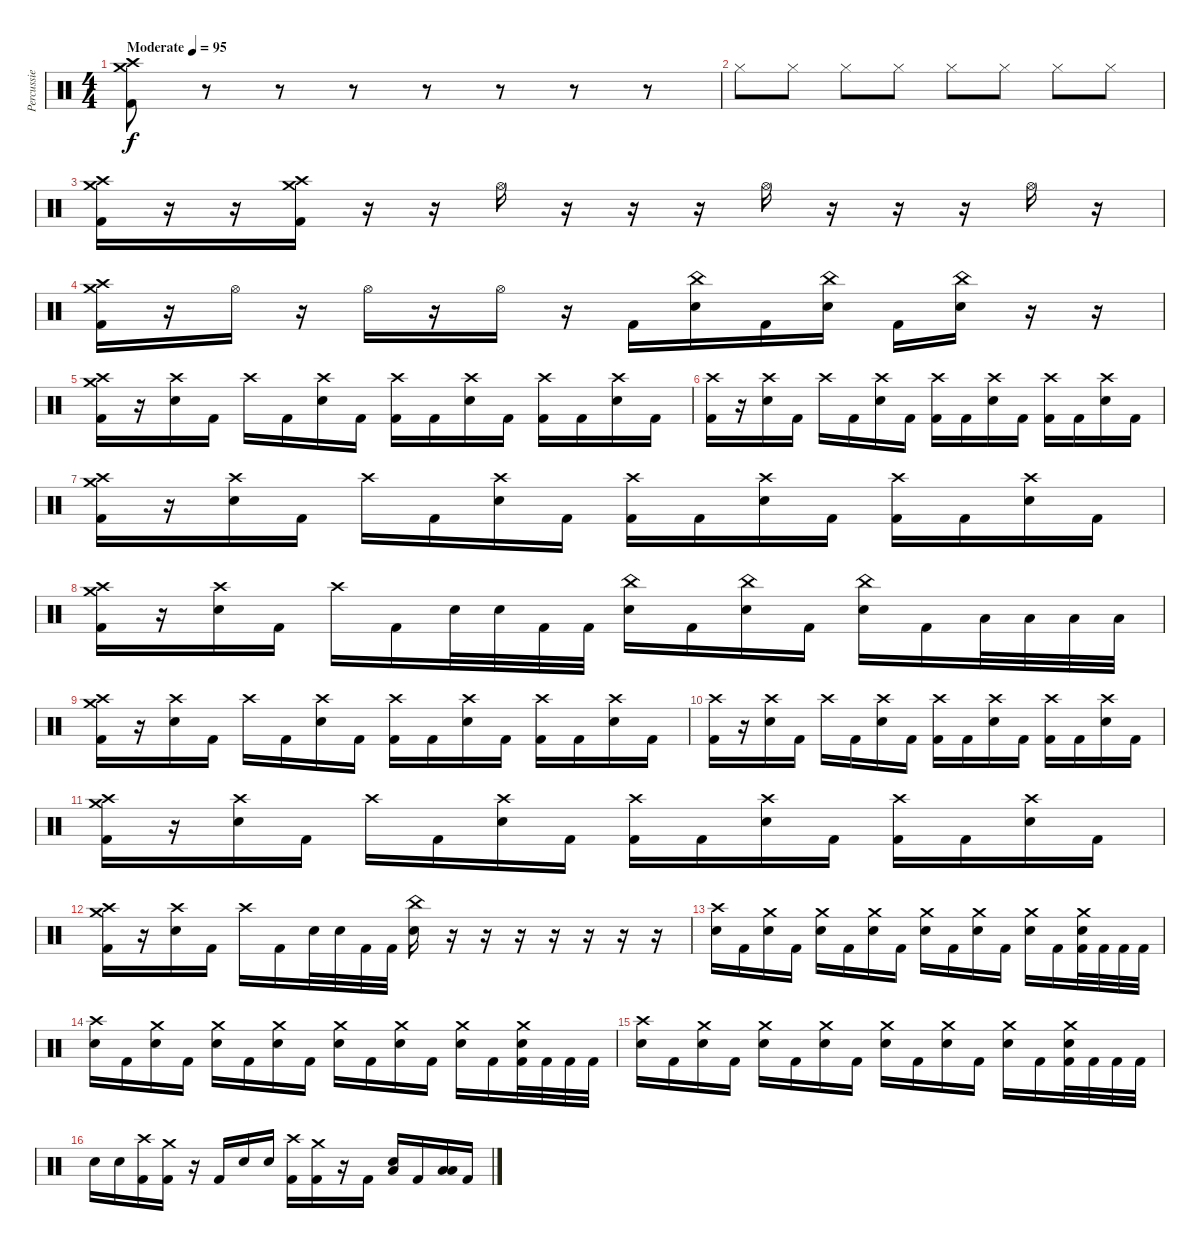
\track ("Percussie" "Percussie") {instrument percussion}
\staff {score}
\articulation defaults
\ts (4 4)
\tempo (95 "Moderate")
\clef neutral
\ks c
("Crash medium (hit)" "Crash high (hit)" "Kick (hit) 2").8{dy f} r.8{volume 0} r.8 r.8 r.8 r.8 r.8 r.8 |
"Hi-Hat (closed)".8{volume 13} "Hi-Hat (closed)".8 "Hi-Hat (closed)".8 "Hi-Hat (closed)".8 "Hi-Hat (closed)".8 "Hi-Hat (closed)".8 "Hi-Hat (closed)".8 "Hi-Hat (closed)".8 |
("Crash medium (hit)" "Crash high (hit)" "Kick (hit) 2").16{volume 13} r.16{volume 0} r.16 ("Crash medium (hit)" "Crash high (hit)" "Kick (hit) 2").16{volume 13} r.16 r.16 "Hi-Hat (open)".16 r.16 r.16 r.16 "Hi-Hat (open)".16 r.16 r.16 r.16 "Hi-Hat (open)".16 r.16 |
("Crash medium (hit)" "Crash high (hit)" "Kick (hit) 2").16 r.16 "Hi-Hat (open)".16 r.16 "Hi-Hat (open)".16 r.16 "Hi-Hat (open)".16 r.16 "Kick (hit) 2".16 ("China (hit)" "Electric Snare (hit)").16 "Kick (hit) 2".16 ("China (hit)" "Electric Snare (hit)").16 "Kick (hit) 2".16 ("China (hit)" "Electric Snare (hit)").16 r.16{volume 0} r.16 |
("Crash medium (hit)" "Crash high (hit)" "Kick (hit) 2").16{volume 13} r.16 ("Crash high (hit)" "Electric Snare (hit)").16 "Kick (hit) 2".16 "Crash high (hit)".16 "Kick (hit) 2".16 ("Crash high (hit)" "Electric Snare (hit)").16 "Kick (hit) 2".16 ("Crash high (hit)" "Kick (hit) 2").16 "Kick (hit) 2".16 ("Crash high (hit)" "Electric Snare (hit)").16 "Kick (hit) 2".16 ("Crash high (hit)" "Kick (hit) 2").16 "Kick (hit) 2".16 ("Crash high (hit)" "Electric Snare (hit)").16 "Kick (hit) 2".16 |
("Crash high (hit)" "Kick (hit) 2").16 r.16 ("Crash high (hit)" "Electric Snare (hit)").16 "Kick (hit) 2".16 "Crash high (hit)".16 "Kick (hit) 2".16 ("Crash high (hit)" "Electric Snare (hit)").16 "Kick (hit) 2".16 ("Crash high (hit)" "Kick (hit) 2").16 "Kick (hit) 2".16 ("Crash high (hit)" "Electric Snare (hit)").16 "Kick (hit) 2".16 ("Crash high (hit)" "Kick (hit) 2").16 "Kick (hit) 2".16 ("Crash high (hit)" "Electric Snare (hit)").16 "Kick (hit) 2".16 |
("Crash medium (hit)" "Crash high (hit)" "Kick (hit) 2").16 r.16 ("Crash high (hit)" "Electric Snare (hit)").16 "Kick (hit) 2".16 "Crash high (hit)".16 "Kick (hit) 2".16 ("Crash high (hit)" "Electric Snare (hit)").16 "Kick (hit) 2".16 ("Crash high (hit)" "Kick (hit) 2").16 "Kick (hit) 2".16 ("Crash high (hit)" "Electric Snare (hit)").16 "Kick (hit) 2".16 ("Crash high (hit)" "Kick (hit) 2").16 "Kick (hit) 2".16 ("Crash high (hit)" "Electric Snare (hit)").16 "Kick (hit) 2".16 |
("Crash medium (hit)" "Crash high (hit)" "Kick (hit) 2").16 r.16 ("Crash high (hit)" "Electric Snare (hit)").16 "Kick (hit) 2".16 "Crash high (hit)".16 "Kick (hit) 2".16 "Electric Snare (hit)".32 "Electric Snare (hit)".32 "Kick (hit) 2".32 "Kick (hit) 2".32 ("China (hit)" "Electric Snare (hit)").16 "Kick (hit) 2".16 ("China (hit)" "Electric Snare (hit)").16 "Kick (hit) 2".16 ("China (hit)" "Electric Snare (hit)").16 "Kick (hit) 2".16 "Low Tom (hit)".32 "Low Tom (hit)".32 "Low Floor Tom (hit)".32 "Low Floor Tom (hit)".32 |
("Crash medium (hit)" "Crash high (hit)" "Kick (hit) 2").16{volume 13} r.16 ("Crash high (hit)" "Electric Snare (hit)").16 "Kick (hit) 2".16 "Crash high (hit)".16 "Kick (hit) 2".16 ("Crash high (hit)" "Electric Snare (hit)").16 "Kick (hit) 2".16 ("Crash high (hit)" "Kick (hit) 2").16 "Kick (hit) 2".16 ("Crash high (hit)" "Electric Snare (hit)").16 "Kick (hit) 2".16 ("Crash high (hit)" "Kick (hit) 2").16 "Kick (hit) 2".16 ("Crash high (hit)" "Electric Snare (hit)").16 "Kick (hit) 2".16 |
("Crash high (hit)" "Kick (hit) 2").16 r.16 ("Crash high (hit)" "Electric Snare (hit)").16 "Kick (hit) 2".16 "Crash high (hit)".16 "Kick (hit) 2".16 ("Crash high (hit)" "Electric Snare (hit)").16 "Kick (hit) 2".16 ("Crash high (hit)" "Kick (hit) 2").16 "Kick (hit) 2".16 ("Crash high (hit)" "Electric Snare (hit)").16 "Kick (hit) 2".16 ("Crash high (hit)" "Kick (hit) 2").16 "Kick (hit) 2".16 ("Crash high (hit)" "Electric Snare (hit)").16 "Kick (hit) 2".16 |
("Crash medium (hit)" "Crash high (hit)" "Kick (hit) 2").16 r.16 ("Crash high (hit)" "Electric Snare (hit)").16 "Kick (hit) 2".16 "Crash high (hit)".16 "Kick (hit) 2".16 ("Crash high (hit)" "Electric Snare (hit)").16 "Kick (hit) 2".16 ("Crash high (hit)" "Kick (hit) 2").16 "Kick (hit) 2".16 ("Crash high (hit)" "Electric Snare (hit)").16 "Kick (hit) 2".16 ("Crash high (hit)" "Kick (hit) 2").16 "Kick (hit) 2".16 ("Crash high (hit)" "Electric Snare (hit)").16 "Kick (hit) 2".16 |
("Crash medium (hit)" "Crash high (hit)" "Kick (hit) 2").16 r.16 ("Crash high (hit)" "Electric Snare (hit)").16 "Kick (hit) 2".16 "Crash high (hit)".16 "Kick (hit) 2".16 "Electric Snare (hit)".32 "Electric Snare (hit)".32 "Kick (hit) 2".32 "Kick (hit) 2".32 ("China (hit)" "Electric Snare (hit)").16 r.16{volume 0} r.16 r.16 r.16 r.16 r.16 r.16 |
("Crash high (hit)" "Electric Snare (hit)").16{volume 13} "Kick (hit) 2".16 ("Crash medium (hit)" "Electric Snare (hit)").16 "Kick (hit) 2".16 ("Crash medium (hit)" "Electric Snare (hit)").16 "Kick (hit) 2".16 ("Crash medium (hit)" "Electric Snare (hit)").16 "Kick (hit) 2".16 ("Crash medium (hit)" "Electric Snare (hit)").16 "Kick (hit) 2".16 ("Crash medium (hit)" "Electric Snare (hit)").16 "Kick (hit) 2".16 ("Crash medium (hit)" "Electric Snare (hit)").16 "Kick (hit) 2".16 ("Crash medium (hit)" "Electric Snare (hit)" "Kick (hit) 2").32 "Kick (hit) 2".32 "Kick (hit) 2".32 "Kick (hit) 2".32 |
("Crash high (hit)" "Electric Snare (hit)").16{volume 13} "Kick (hit) 2".16 ("Crash medium (hit)" "Electric Snare (hit)").16 "Kick (hit) 2".16 ("Crash medium (hit)" "Electric Snare (hit)").16 "Kick (hit) 2".16 ("Crash medium (hit)" "Electric Snare (hit)").16 "Kick (hit) 2".16 ("Crash medium (hit)" "Electric Snare (hit)").16 "Kick (hit) 2".16 ("Crash medium (hit)" "Electric Snare (hit)").16 "Kick (hit) 2".16 ("Crash medium (hit)" "Electric Snare (hit)").16 "Kick (hit) 2".16 ("Crash medium (hit)" "Electric Snare (hit)" "Kick (hit) 2").32 "Kick (hit) 2".32 "Kick (hit) 2".32 "Kick (hit) 2".32 |
("Crash high (hit)" "Electric Snare (hit)").16{volume 13} "Kick (hit) 2".16 ("Crash medium (hit)" "Electric Snare (hit)").16 "Kick (hit) 2".16 ("Crash medium (hit)" "Electric Snare (hit)").16 "Kick (hit) 2".16 ("Crash medium (hit)" "Electric Snare (hit)").16 "Kick (hit) 2".16 ("Crash medium (hit)" "Electric Snare (hit)").16 "Kick (hit) 2".16 ("Crash medium (hit)" "Electric Snare (hit)").16 "Kick (hit) 2".16 ("Crash medium (hit)" "Electric Snare (hit)").16 "Kick (hit) 2".16 ("Crash medium (hit)" "Electric Snare (hit)" "Kick (hit) 2").32 "Kick (hit) 2".32 "Kick (hit) 2".32 "Kick (hit) 2".32 |
"Electric Snare (hit)".16 "Electric Snare (hit)".16 ("Crash high (hit)" "Kick (hit) 2").16 ("Crash medium (hit)" "Kick (hit) 2").16 r.16 "Kick (hit) 2".16 "Electric Snare (hit)".16 "Electric Snare (hit)".16 ("Crash high (hit)" "Kick (hit) 2").16 ("Crash medium (hit)" "Kick (hit) 2").16 r.16 "Kick (hit) 2".16 ("Low Floor Tom (hit)" "Electric Snare (hit)").16 "Kick (hit) 2".16 ("Low Tom (hit)" "Low Floor Tom (hit)").16 "Kick (hit) 2".16
